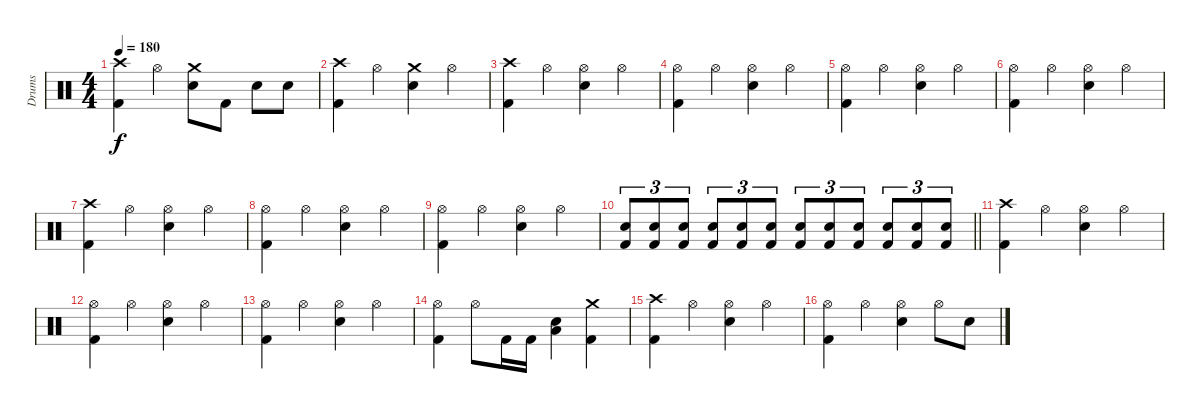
\track ("Drums" "Drums") {instrument percussion}
\staff {score}
\articulation defaults
\ts (4 4)
\tempo 180
\clef neutral
\ks c
("Crash high (hit)" "Kick (hit) 2").4{dy f} "Hi-Hat (open)".4 ("Crash medium (hit)" "Electric Snare (hit)").8 "Kick (hit) 2".8 "Electric Snare (hit)".8 "Electric Snare (hit)".8 |
("Crash high (hit)" "Kick (hit) 2").4 "Hi-Hat (open)".4 ("Crash medium (hit)" "Electric Snare (hit)").4 "Hi-Hat (open)".4 |
("Crash high (hit)" "Kick (hit) 2").4 "Hi-Hat (open)".4 ("Hi-Hat (open)" "Electric Snare (hit)").4 "Hi-Hat (open)".4 |
("Hi-Hat (open)" "Kick (hit) 2").4 "Hi-Hat (open)".4 ("Hi-Hat (open)" "Electric Snare (hit)").4 "Hi-Hat (open)".4 |
("Hi-Hat (open)" "Kick (hit) 2").4 "Hi-Hat (open)".4 ("Hi-Hat (open)" "Electric Snare (hit)").4 "Hi-Hat (open)".4 |
("Hi-Hat (open)" "Kick (hit) 2").4 "Hi-Hat (open)".4 ("Hi-Hat (open)" "Electric Snare (hit)").4 "Hi-Hat (open)".4 |
("Crash high (hit)" "Kick (hit) 2").4 "Hi-Hat (open)".4 ("Hi-Hat (open)" "Electric Snare (hit)").4 "Hi-Hat (open)".4 |
("Hi-Hat (open)" "Kick (hit) 2").4 "Hi-Hat (open)".4 ("Hi-Hat (open)" "Electric Snare (hit)").4 "Hi-Hat (open)".4 |
("Hi-Hat (open)" "Kick (hit) 2").4 "Hi-Hat (open)".4 ("Hi-Hat (open)" "Electric Snare (hit)").4 "Hi-Hat (open)".4 |
\barLineRight lightlight
("Electric Snare (hit)" "Kick (hit) 2").8{tu (3 2)} ("Electric Snare (hit)" "Kick (hit) 2").8{tu (3 2)} ("Electric Snare (hit)" "Kick (hit) 2").8{tu (3 2)} ("Electric Snare (hit)" "Kick (hit) 2").8{tu (3 2)} ("Electric Snare (hit)" "Kick (hit) 2").8{tu (3 2)} ("Electric Snare (hit)" "Kick (hit) 2").8{tu (3 2)} ("Electric Snare (hit)" "Kick (hit) 2").8{tu (3 2)} ("Electric Snare (hit)" "Kick (hit) 2").8{tu (3 2)} ("Electric Snare (hit)" "Kick (hit) 2").8{tu (3 2)} ("Electric Snare (hit)" "Kick (hit) 2").8{tu (3 2)} ("Electric Snare (hit)" "Kick (hit) 2").8{tu (3 2)} ("Electric Snare (hit)" "Kick (hit) 2").8{tu (3 2)} |
\section ("" "")
("Crash high (hit)" "Kick (hit) 2").4 "Hi-Hat (open)".4 ("Hi-Hat (open)" "Electric Snare (hit)").4 "Hi-Hat (open)".4 |
("Hi-Hat (open)" "Kick (hit) 2").4 "Hi-Hat (open)".4 ("Hi-Hat (open)" "Electric Snare (hit)").4 "Hi-Hat (open)".4 |
("Hi-Hat (open)" "Kick (hit) 2").4 "Hi-Hat (open)".4 ("Hi-Hat (open)" "Electric Snare (hit)").4 "Hi-Hat (open)".4 |
("Hi-Hat (open)" "Kick (hit) 2").4 "Hi-Hat (open)".8 "Kick (hit) 2".16 "Kick (hit) 2".16 ("Electric Snare (hit)" "Low Floor Tom (hit)").4 ("Crash medium (hit)" "Kick (hit) 2").4 |
("Crash high (hit)" "Kick (hit) 2").4 "Hi-Hat (open)".4 ("Hi-Hat (open)" "Electric Snare (hit)").4 "Hi-Hat (open)".4 |
("Hi-Hat (open)" "Kick (hit) 2").4 "Hi-Hat (open)".4 ("Hi-Hat (open)" "Electric Snare (hit)").4 "Hi-Hat (open)".8 "Electric Snare (hit)".8
